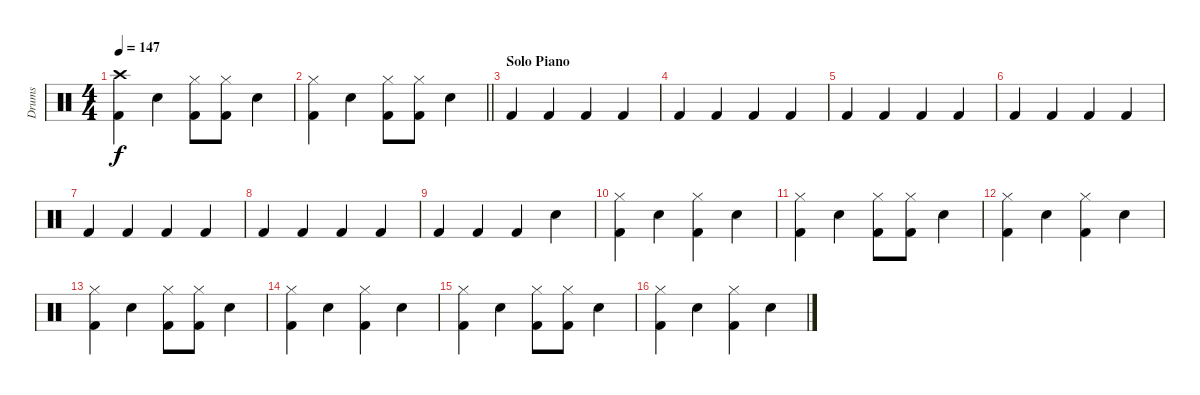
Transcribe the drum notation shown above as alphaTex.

\track ("Drums" "Drums") {instrument percussion}
\staff {score}
\articulation defaults
\ts (4 4)
\tempo 147
\clef neutral
\ks c
("Crash high (hit)" "Kick (hit) 2").4{dy f} "Electric Snare (hit)".4 ("Hi-Hat (closed)" "Kick (hit) 2").8 ("Hi-Hat (closed)" "Kick (hit) 2").8 "Electric Snare (hit)".4 |
\barLineRight lightlight
("Hi-Hat (closed)" "Kick (hit) 2").4 "Electric Snare (hit)".4 ("Hi-Hat (closed)" "Kick (hit) 2").8 ("Hi-Hat (closed)" "Kick (hit) 2").8 "Electric Snare (hit)".4 |
\section ("" "Solo Piano")
"Kick (hit) 2".4 "Kick (hit) 2".4 "Kick (hit) 2".4 "Kick (hit) 2".4 |
"Kick (hit) 2".4 "Kick (hit) 2".4 "Kick (hit) 2".4 "Kick (hit) 2".4 |
"Kick (hit) 2".4 "Kick (hit) 2".4 "Kick (hit) 2".4 "Kick (hit) 2".4 |
"Kick (hit) 2".4 "Kick (hit) 2".4 "Kick (hit) 2".4 "Kick (hit) 2".4 |
"Kick (hit) 2".4 "Kick (hit) 2".4 "Kick (hit) 2".4 "Kick (hit) 2".4 |
"Kick (hit) 2".4 "Kick (hit) 2".4 "Kick (hit) 2".4 "Kick (hit) 2".4 |
"Kick (hit) 2".4 "Kick (hit) 2".4 "Kick (hit) 2".4 "Electric Snare (hit)".4 |
("Hi-Hat (closed)" "Kick (hit) 2").4 "Electric Snare (hit)".4 ("Hi-Hat (closed)" "Kick (hit) 2").4 "Electric Snare (hit)".4 |
("Hi-Hat (closed)" "Kick (hit) 2").4 "Electric Snare (hit)".4 ("Hi-Hat (closed)" "Kick (hit) 2").8 ("Hi-Hat (closed)" "Kick (hit) 2").8 "Electric Snare (hit)".4 |
("Hi-Hat (closed)" "Kick (hit) 2").4 "Electric Snare (hit)".4 ("Hi-Hat (closed)" "Kick (hit) 2").4 "Electric Snare (hit)".4 |
("Hi-Hat (closed)" "Kick (hit) 2").4 "Electric Snare (hit)".4 ("Hi-Hat (closed)" "Kick (hit) 2").8 ("Hi-Hat (closed)" "Kick (hit) 2").8 "Electric Snare (hit)".4 |
("Hi-Hat (closed)" "Kick (hit) 2").4 "Electric Snare (hit)".4 ("Hi-Hat (closed)" "Kick (hit) 2").4 "Electric Snare (hit)".4 |
("Hi-Hat (closed)" "Kick (hit) 2").4 "Electric Snare (hit)".4 ("Hi-Hat (closed)" "Kick (hit) 2").8 ("Hi-Hat (closed)" "Kick (hit) 2").8 "Electric Snare (hit)".4 |
("Hi-Hat (closed)" "Kick (hit) 2").4 "Electric Snare (hit)".4 ("Hi-Hat (closed)" "Kick (hit) 2").4 "Electric Snare (hit)".4
